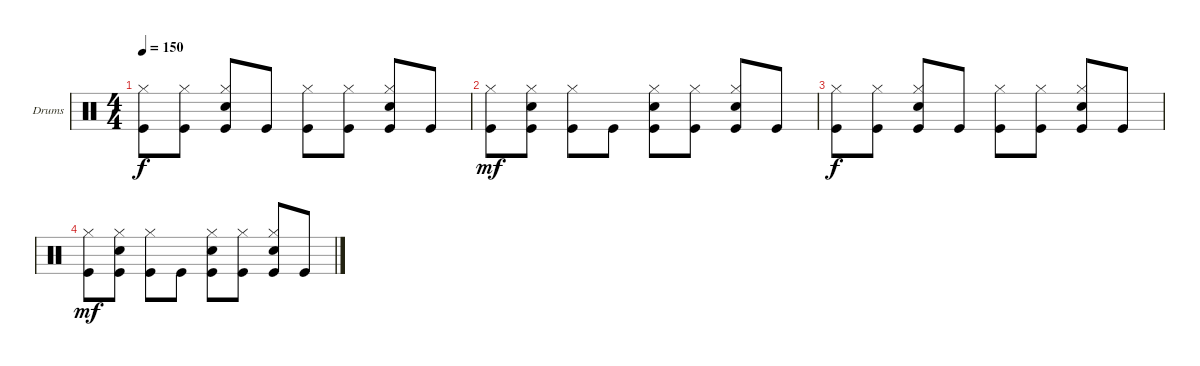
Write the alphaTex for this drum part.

\defaultSystemsLayout 4
\bracketExtendMode groupsimilarinstruments
\firstSystemTrackNameOrientation horizontal
\otherSystemsTrackNameOrientation horizontal
\track ("Drumkit" "Drums") {instrument percussion}
\staff {score}
\articulation defaults
\ts (4 4)
\tempo 150
\clef neutral
\ks c
("Kick (hit)" "Hi-Hat (closed)").8{dy f} ("Kick (hit)" "Hi-Hat (closed)").8 ("Snare (hit) 2" "Kick (hit)" "Hi-Hat (closed)").8 "Kick (hit)".8 ("Kick (hit)" "Hi-Hat (closed)").8 ("Kick (hit)" "Hi-Hat (closed)").8 ("Snare (hit) 2" "Kick (hit)" "Hi-Hat (closed)").8 "Kick (hit)".8 |
("Kick (hit)" "Hi-Hat (closed)").8{dy mf} ("Snare (hit) 2" "Kick (hit)" "Hi-Hat (closed)").8 ("Kick (hit)" "Hi-Hat (closed)").8 "Kick (hit)".8 ("Snare (hit) 2" "Kick (hit)" "Hi-Hat (closed)").8 ("Kick (hit)" "Hi-Hat (closed)").8 ("Snare (hit) 2" "Kick (hit)" "Hi-Hat (closed)").8 "Kick (hit)".8 |
("Kick (hit)" "Hi-Hat (closed)").8{dy f} ("Kick (hit)" "Hi-Hat (closed)").8 ("Snare (hit) 2" "Kick (hit)" "Hi-Hat (closed)").8 "Kick (hit)".8 ("Kick (hit)" "Hi-Hat (closed)").8 ("Kick (hit)" "Hi-Hat (closed)").8 ("Snare (hit) 2" "Kick (hit)" "Hi-Hat (closed)").8 "Kick (hit)".8 |
("Kick (hit)" "Hi-Hat (closed)").8{dy mf} ("Snare (hit) 2" "Kick (hit)" "Hi-Hat (closed)").8 ("Kick (hit)" "Hi-Hat (closed)").8 "Kick (hit)".8 ("Snare (hit) 2" "Kick (hit)" "Hi-Hat (closed)").8 ("Kick (hit)" "Hi-Hat (closed)").8 ("Snare (hit) 2" "Kick (hit)" "Hi-Hat (closed)").8 "Kick (hit)".8
